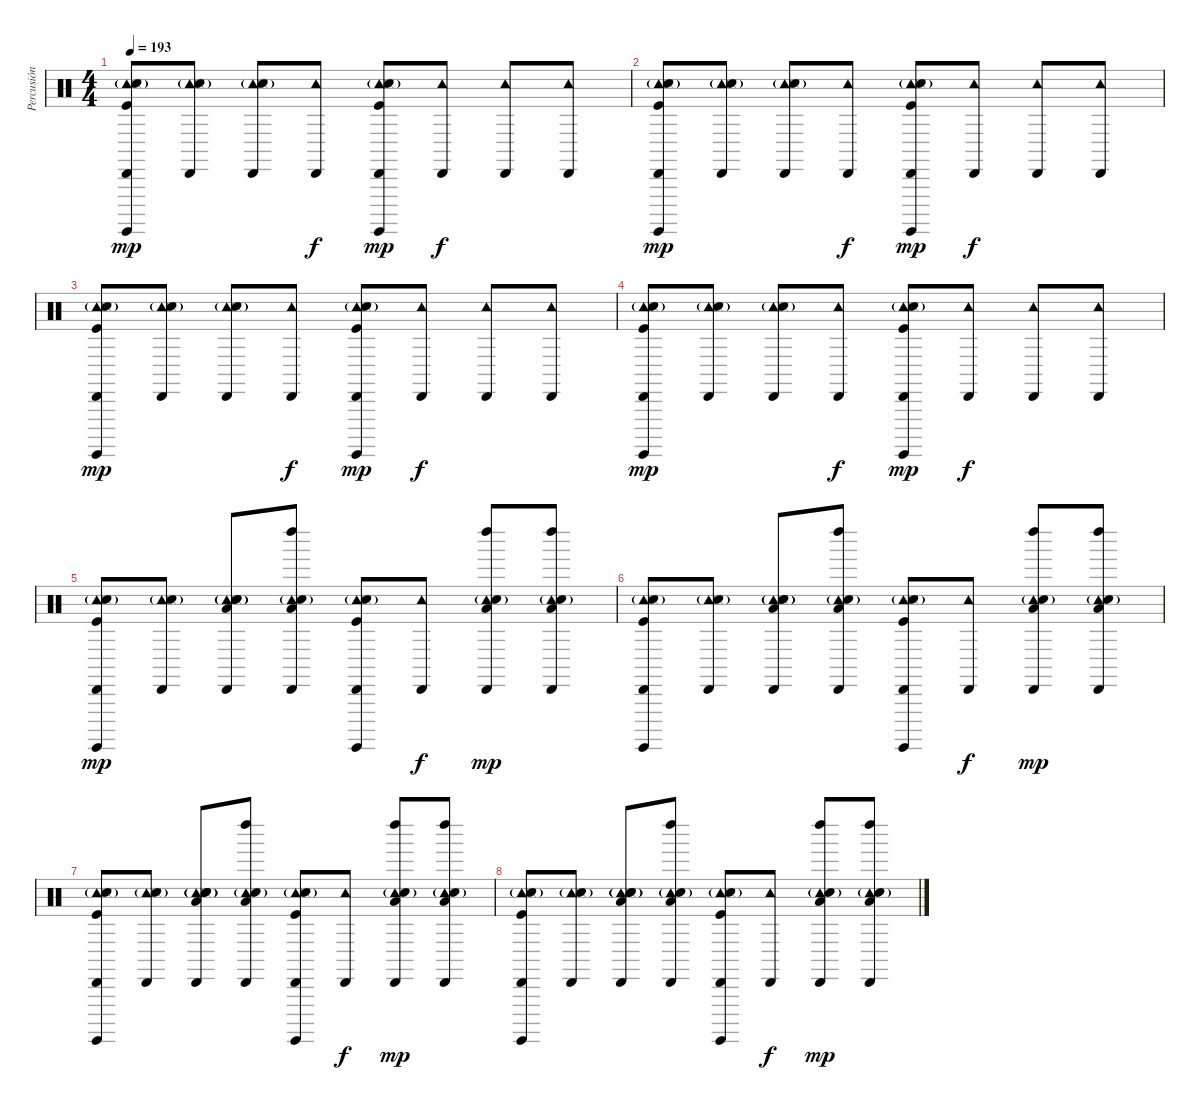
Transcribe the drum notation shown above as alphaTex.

\track ("Percusión" "Percusión") {instrument percussion}
\staff {score}
\articulation defaults
\ts (4 4)
\tempo 193
\clef neutral
\ks c
("Cabasa (hit)" "Tambourine (hit)" "Hand Clap (hit)"{g} "Metronome (hit)" "Surdo (hit)" "Kick (hit)").8{dy mp} ("Cabasa (hit)" "Tambourine (hit)" "Hand Clap (hit)"{g} "Metronome (hit)").8 ("Cabasa (hit)" "Tambourine (hit)" "Hand Clap (hit)"{g} "Metronome (hit)").8 ("Cabasa (hit)" "Tambourine (hit)").8{dy f} ("Cabasa (hit)" "Tambourine (hit)" "Hand Clap (hit)"{g} "Metronome (hit)" "Surdo (hit)" "Kick (hit)").8{dy mp} ("Cabasa (hit)" "Tambourine (hit)").8{dy f} ("Cabasa (hit)" "Tambourine (hit)").8 ("Cabasa (hit)" "Tambourine (hit)").8 |
("Cabasa (hit)" "Tambourine (hit)" "Hand Clap (hit)"{g} "Metronome (hit)" "Surdo (hit)" "Kick (hit)").8{dy mp} ("Cabasa (hit)" "Tambourine (hit)" "Hand Clap (hit)"{g} "Metronome (hit)").8 ("Cabasa (hit)" "Tambourine (hit)" "Hand Clap (hit)"{g} "Metronome (hit)").8 ("Cabasa (hit)" "Tambourine (hit)").8{dy f} ("Cabasa (hit)" "Tambourine (hit)" "Hand Clap (hit)"{g} "Metronome (hit)" "Surdo (hit)" "Kick (hit)").8{dy mp} ("Cabasa (hit)" "Tambourine (hit)").8{dy f} ("Cabasa (hit)" "Tambourine (hit)").8 ("Cabasa (hit)" "Tambourine (hit)").8 |
("Cabasa (hit)" "Tambourine (hit)" "Hand Clap (hit)"{g} "Metronome (hit)" "Surdo (hit)" "Kick (hit)").8{dy mp} ("Cabasa (hit)" "Tambourine (hit)" "Hand Clap (hit)"{g} "Metronome (hit)").8 ("Cabasa (hit)" "Tambourine (hit)" "Hand Clap (hit)"{g} "Metronome (hit)").8 ("Cabasa (hit)" "Tambourine (hit)").8{dy f} ("Cabasa (hit)" "Tambourine (hit)" "Hand Clap (hit)"{g} "Metronome (hit)" "Surdo (hit)" "Kick (hit)").8{dy mp} ("Cabasa (hit)" "Tambourine (hit)").8{dy f} ("Cabasa (hit)" "Tambourine (hit)").8 ("Cabasa (hit)" "Tambourine (hit)").8 |
("Cabasa (hit)" "Tambourine (hit)" "Hand Clap (hit)"{g} "Metronome (hit)" "Surdo (hit)" "Kick (hit)").8{dy mp} ("Cabasa (hit)" "Tambourine (hit)" "Hand Clap (hit)"{g} "Metronome (hit)").8 ("Cabasa (hit)" "Tambourine (hit)" "Hand Clap (hit)"{g} "Metronome (hit)").8 ("Cabasa (hit)" "Tambourine (hit)").8{dy f} ("Cabasa (hit)" "Tambourine (hit)" "Hand Clap (hit)"{g} "Metronome (hit)" "Surdo (hit)" "Kick (hit)").8{dy mp} ("Cabasa (hit)" "Tambourine (hit)").8{dy f} ("Cabasa (hit)" "Tambourine (hit)").8 ("Cabasa (hit)" "Tambourine (hit)").8 |
("Cabasa (hit)" "Tambourine (hit)" "Hand Clap (hit)"{g} "Metronome (hit)" "Surdo (hit)" "Kick (hit)").8{dy mp} ("Cabasa (hit)" "Tambourine (hit)" "Hand Clap (hit)"{g} "Metronome (hit)").8 ("Cabasa (hit)" "Tambourine (hit)" "Hand Clap (hit)"{g} "Metronome (hit)" "Low Tom (hit)" "Electric Snare (hit)"{g}).8 ("Cabasa (hit)" "Tambourine (hit)" "Left Maraca (hit)" "Low Tom (hit)" "Electric Snare (hit)"{g}).8 ("Cabasa (hit)" "Tambourine (hit)" "Hand Clap (hit)"{g} "Metronome (hit)" "Surdo (hit)" "Kick (hit)").8 ("Cabasa (hit)" "Tambourine (hit)").8{dy f} ("Cabasa (hit)" "Tambourine (hit)" "Left Maraca (hit)" "Low Tom (hit)" "Electric Snare (hit)"{g}).8{dy mp} ("Cabasa (hit)" "Tambourine (hit)" "Left Maraca (hit)" "Low Tom (hit)" "Electric Snare (hit)"{g}).8 |
("Cabasa (hit)" "Tambourine (hit)" "Hand Clap (hit)"{g} "Metronome (hit)" "Surdo (hit)" "Kick (hit)").8 ("Cabasa (hit)" "Tambourine (hit)" "Hand Clap (hit)"{g} "Metronome (hit)").8 ("Cabasa (hit)" "Tambourine (hit)" "Hand Clap (hit)"{g} "Metronome (hit)" "Low Tom (hit)" "Electric Snare (hit)"{g}).8 ("Cabasa (hit)" "Tambourine (hit)" "Left Maraca (hit)" "Low Tom (hit)" "Electric Snare (hit)"{g}).8 ("Cabasa (hit)" "Tambourine (hit)" "Hand Clap (hit)"{g} "Metronome (hit)" "Surdo (hit)" "Kick (hit)").8 ("Cabasa (hit)" "Tambourine (hit)").8{dy f} ("Cabasa (hit)" "Tambourine (hit)" "Left Maraca (hit)" "Low Tom (hit)" "Electric Snare (hit)"{g}).8{dy mp} ("Cabasa (hit)" "Tambourine (hit)" "Left Maraca (hit)" "Low Tom (hit)" "Electric Snare (hit)"{g}).8 |
("Cabasa (hit)" "Tambourine (hit)" "Hand Clap (hit)"{g} "Metronome (hit)" "Surdo (hit)" "Kick (hit)").8 ("Cabasa (hit)" "Tambourine (hit)" "Hand Clap (hit)"{g} "Metronome (hit)").8 ("Cabasa (hit)" "Tambourine (hit)" "Hand Clap (hit)"{g} "Metronome (hit)" "Low Tom (hit)" "Electric Snare (hit)"{g}).8 ("Cabasa (hit)" "Tambourine (hit)" "Left Maraca (hit)" "Low Tom (hit)" "Electric Snare (hit)"{g}).8 ("Cabasa (hit)" "Tambourine (hit)" "Hand Clap (hit)"{g} "Metronome (hit)" "Surdo (hit)" "Kick (hit)").8 ("Cabasa (hit)" "Tambourine (hit)").8{dy f} ("Cabasa (hit)" "Tambourine (hit)" "Left Maraca (hit)" "Low Tom (hit)" "Electric Snare (hit)"{g}).8{dy mp} ("Cabasa (hit)" "Tambourine (hit)" "Left Maraca (hit)" "Low Tom (hit)" "Electric Snare (hit)"{g}).8 |
("Cabasa (hit)" "Tambourine (hit)" "Hand Clap (hit)"{g} "Metronome (hit)" "Surdo (hit)" "Kick (hit)").8 ("Cabasa (hit)" "Tambourine (hit)" "Hand Clap (hit)"{g} "Metronome (hit)").8 ("Cabasa (hit)" "Tambourine (hit)" "Hand Clap (hit)"{g} "Metronome (hit)" "Low Tom (hit)" "Electric Snare (hit)"{g}).8 ("Cabasa (hit)" "Tambourine (hit)" "Left Maraca (hit)" "Low Tom (hit)" "Electric Snare (hit)"{g}).8 ("Cabasa (hit)" "Tambourine (hit)" "Hand Clap (hit)"{g} "Metronome (hit)" "Surdo (hit)" "Kick (hit)").8 ("Cabasa (hit)" "Tambourine (hit)").8{dy f} ("Cabasa (hit)" "Tambourine (hit)" "Left Maraca (hit)" "Low Tom (hit)" "Electric Snare (hit)"{g}).8{dy mp} ("Cabasa (hit)" "Tambourine (hit)" "Left Maraca (hit)" "Low Tom (hit)" "Electric Snare (hit)"{g}).8
